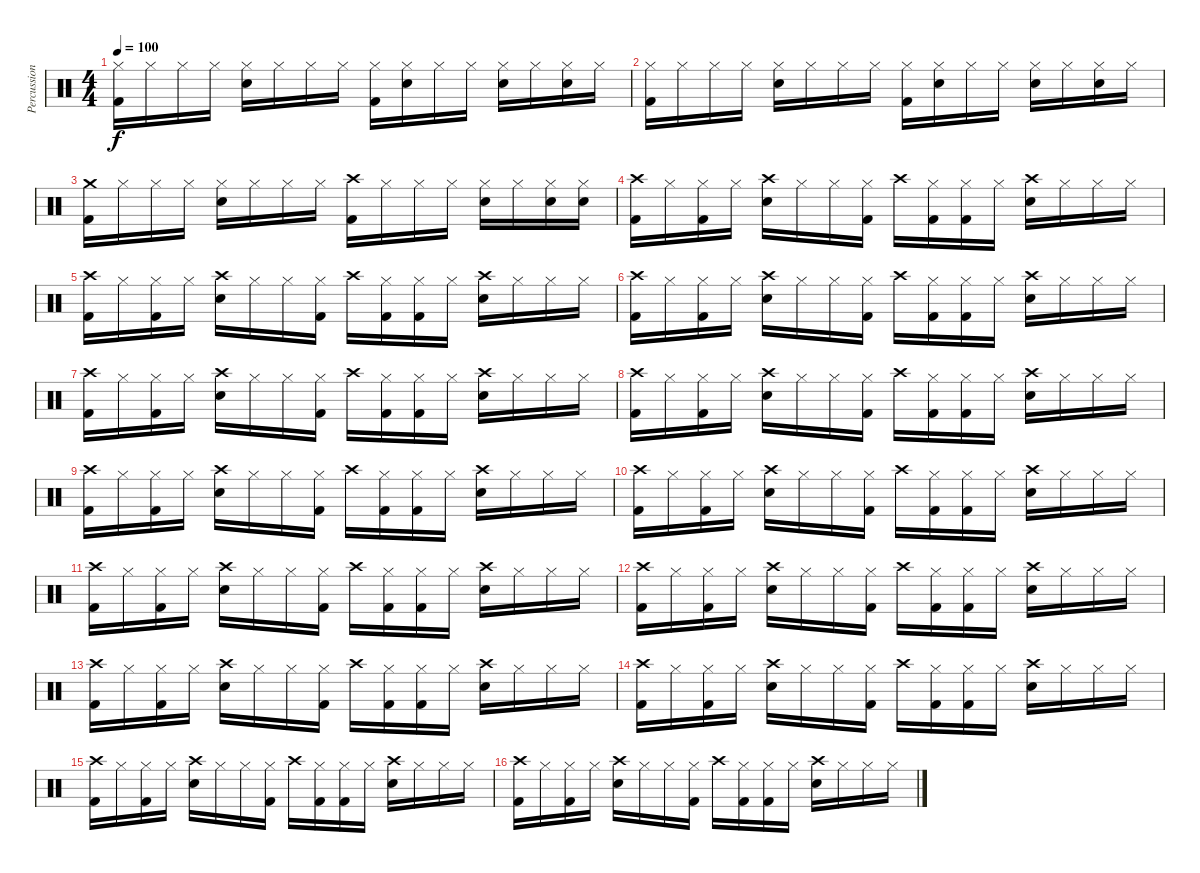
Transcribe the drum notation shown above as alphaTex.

\track ("Percussion" "Percussion") {instrument percussion}
\staff {score}
\articulation defaults
\ts (4 4)
\tempo 100
\clef neutral
\ks c
("Hi-Hat (closed)" "Kick (hit) 2").16{dy f} "Hi-Hat (closed)".16 "Hi-Hat (closed)".16 "Hi-Hat (closed)".16 ("Hi-Hat (closed)" "Snare (hit) 2").16 "Hi-Hat (closed)".16 "Hi-Hat (closed)".16 "Hi-Hat (closed)".16 ("Hi-Hat (closed)" "Kick (hit) 2").16 ("Hi-Hat (closed)" "Snare (hit) 2").16 "Hi-Hat (closed)".16 "Hi-Hat (closed)".16 ("Hi-Hat (closed)" "Snare (hit) 2").16 "Hi-Hat (closed)".16 ("Hi-Hat (closed)" "Snare (hit) 2").16 "Hi-Hat (closed)".16 |
("Hi-Hat (closed)" "Kick (hit) 2").16 "Hi-Hat (closed)".16 "Hi-Hat (closed)".16 "Hi-Hat (closed)".16 ("Hi-Hat (closed)" "Snare (hit) 2").16 "Hi-Hat (closed)".16 "Hi-Hat (closed)".16 "Hi-Hat (closed)".16 ("Hi-Hat (closed)" "Kick (hit) 2").16 ("Hi-Hat (closed)" "Snare (hit) 2").16 "Hi-Hat (closed)".16 "Hi-Hat (closed)".16 ("Hi-Hat (closed)" "Snare (hit) 2").16 "Hi-Hat (closed)".16 ("Hi-Hat (closed)" "Snare (hit) 2").16 "Hi-Hat (closed)".16 |
("Crash medium (hit)" "Kick (hit) 2").16 "Hi-Hat (closed)".16 "Hi-Hat (closed)".16 "Hi-Hat (closed)".16 ("Hi-Hat (closed)" "Snare (hit) 2").16 "Hi-Hat (closed)".16 "Hi-Hat (closed)".16 "Hi-Hat (closed)".16 ("Crash high (hit)" "Kick (hit) 2").16 "Hi-Hat (closed)".16 "Hi-Hat (closed)".16 "Hi-Hat (closed)".16 ("Hi-Hat (closed)" "Snare (hit) 2").16 "Hi-Hat (closed)".16 ("Hi-Hat (closed)" "Snare (hit) 2").16 ("Hi-Hat (closed)" "Snare (hit) 2").16 |
("Crash high (hit)" "Kick (hit) 2").16 "Hi-Hat (closed)".16 ("Hi-Hat (closed)" "Kick (hit) 2").16 "Hi-Hat (closed)".16 ("Crash high (hit)" "Snare (hit) 2").16 "Hi-Hat (closed)".16 "Hi-Hat (closed)".16 ("Hi-Hat (closed)" "Kick (hit) 2").16 "Crash high (hit)".16 ("Hi-Hat (closed)" "Kick (hit) 2").16 ("Hi-Hat (closed)" "Kick (hit) 2").16 "Hi-Hat (closed)".16 ("Crash high (hit)" "Snare (hit) 2").16 "Hi-Hat (closed)".16 "Hi-Hat (closed)".16 "Hi-Hat (closed)".16 |
("Crash high (hit)" "Kick (hit) 2").16 "Hi-Hat (closed)".16 ("Hi-Hat (closed)" "Kick (hit) 2").16 "Hi-Hat (closed)".16 ("Crash high (hit)" "Snare (hit) 2").16 "Hi-Hat (closed)".16 "Hi-Hat (closed)".16 ("Hi-Hat (closed)" "Kick (hit) 2").16 "Crash high (hit)".16 ("Hi-Hat (closed)" "Kick (hit) 2").16 ("Hi-Hat (closed)" "Kick (hit) 2").16 "Hi-Hat (closed)".16 ("Crash high (hit)" "Snare (hit) 2").16 "Hi-Hat (closed)".16 "Hi-Hat (closed)".16 "Hi-Hat (closed)".16 |
("Crash high (hit)" "Kick (hit) 2").16 "Hi-Hat (closed)".16 ("Hi-Hat (closed)" "Kick (hit) 2").16 "Hi-Hat (closed)".16 ("Crash high (hit)" "Snare (hit) 2").16 "Hi-Hat (closed)".16 "Hi-Hat (closed)".16 ("Hi-Hat (closed)" "Kick (hit) 2").16 "Crash high (hit)".16 ("Hi-Hat (closed)" "Kick (hit) 2").16 ("Hi-Hat (closed)" "Kick (hit) 2").16 "Hi-Hat (closed)".16 ("Crash high (hit)" "Snare (hit) 2").16 "Hi-Hat (closed)".16 "Hi-Hat (closed)".16 "Hi-Hat (closed)".16 |
("Crash high (hit)" "Kick (hit) 2").16 "Hi-Hat (closed)".16 ("Hi-Hat (closed)" "Kick (hit) 2").16 "Hi-Hat (closed)".16 ("Crash high (hit)" "Snare (hit) 2").16 "Hi-Hat (closed)".16 "Hi-Hat (closed)".16 ("Hi-Hat (closed)" "Kick (hit) 2").16 "Crash high (hit)".16 ("Hi-Hat (closed)" "Kick (hit) 2").16 ("Hi-Hat (closed)" "Kick (hit) 2").16 "Hi-Hat (closed)".16 ("Crash high (hit)" "Snare (hit) 2").16 "Hi-Hat (closed)".16 "Hi-Hat (closed)".16 "Hi-Hat (closed)".16 |
("Crash high (hit)" "Kick (hit) 2").16 "Hi-Hat (closed)".16 ("Hi-Hat (closed)" "Kick (hit) 2").16 "Hi-Hat (closed)".16 ("Crash high (hit)" "Snare (hit) 2").16 "Hi-Hat (closed)".16 "Hi-Hat (closed)".16 ("Hi-Hat (closed)" "Kick (hit) 2").16 "Crash high (hit)".16 ("Hi-Hat (closed)" "Kick (hit) 2").16 ("Hi-Hat (closed)" "Kick (hit) 2").16 "Hi-Hat (closed)".16 ("Crash high (hit)" "Snare (hit) 2").16 "Hi-Hat (closed)".16 "Hi-Hat (closed)".16 "Hi-Hat (closed)".16 |
("Crash high (hit)" "Kick (hit) 2").16 "Hi-Hat (closed)".16 ("Hi-Hat (closed)" "Kick (hit) 2").16 "Hi-Hat (closed)".16 ("Crash high (hit)" "Snare (hit) 2").16 "Hi-Hat (closed)".16 "Hi-Hat (closed)".16 ("Hi-Hat (closed)" "Kick (hit) 2").16 "Crash high (hit)".16 ("Hi-Hat (closed)" "Kick (hit) 2").16 ("Hi-Hat (closed)" "Kick (hit) 2").16 "Hi-Hat (closed)".16 ("Crash high (hit)" "Snare (hit) 2").16 "Hi-Hat (closed)".16 "Hi-Hat (closed)".16 "Hi-Hat (closed)".16 |
("Crash high (hit)" "Kick (hit) 2").16 "Hi-Hat (closed)".16 ("Hi-Hat (closed)" "Kick (hit) 2").16 "Hi-Hat (closed)".16 ("Crash high (hit)" "Snare (hit) 2").16 "Hi-Hat (closed)".16 "Hi-Hat (closed)".16 ("Hi-Hat (closed)" "Kick (hit) 2").16 "Crash high (hit)".16 ("Hi-Hat (closed)" "Kick (hit) 2").16 ("Hi-Hat (closed)" "Kick (hit) 2").16 "Hi-Hat (closed)".16 ("Crash high (hit)" "Snare (hit) 2").16 "Hi-Hat (closed)".16 "Hi-Hat (closed)".16 "Hi-Hat (closed)".16 |
("Crash high (hit)" "Kick (hit) 2").16 "Hi-Hat (closed)".16 ("Hi-Hat (closed)" "Kick (hit) 2").16 "Hi-Hat (closed)".16 ("Crash high (hit)" "Snare (hit) 2").16 "Hi-Hat (closed)".16 "Hi-Hat (closed)".16 ("Hi-Hat (closed)" "Kick (hit) 2").16 "Crash high (hit)".16 ("Hi-Hat (closed)" "Kick (hit) 2").16 ("Hi-Hat (closed)" "Kick (hit) 2").16 "Hi-Hat (closed)".16 ("Crash high (hit)" "Snare (hit) 2").16 "Hi-Hat (closed)".16 "Hi-Hat (closed)".16 "Hi-Hat (closed)".16 |
("Crash high (hit)" "Kick (hit) 2").16 "Hi-Hat (closed)".16 ("Hi-Hat (closed)" "Kick (hit) 2").16 "Hi-Hat (closed)".16 ("Crash high (hit)" "Snare (hit) 2").16 "Hi-Hat (closed)".16 "Hi-Hat (closed)".16 ("Hi-Hat (closed)" "Kick (hit) 2").16 "Crash high (hit)".16 ("Hi-Hat (closed)" "Kick (hit) 2").16 ("Hi-Hat (closed)" "Kick (hit) 2").16 "Hi-Hat (closed)".16 ("Crash high (hit)" "Snare (hit) 2").16 "Hi-Hat (closed)".16 "Hi-Hat (closed)".16 "Hi-Hat (closed)".16 |
("Crash high (hit)" "Kick (hit) 2").16 "Hi-Hat (closed)".16 ("Hi-Hat (closed)" "Kick (hit) 2").16 "Hi-Hat (closed)".16 ("Crash high (hit)" "Snare (hit) 2").16 "Hi-Hat (closed)".16 "Hi-Hat (closed)".16 ("Hi-Hat (closed)" "Kick (hit) 2").16 "Crash high (hit)".16 ("Hi-Hat (closed)" "Kick (hit) 2").16 ("Hi-Hat (closed)" "Kick (hit) 2").16 "Hi-Hat (closed)".16 ("Crash high (hit)" "Snare (hit) 2").16 "Hi-Hat (closed)".16 "Hi-Hat (closed)".16 "Hi-Hat (closed)".16 |
("Crash high (hit)" "Kick (hit) 2").16 "Hi-Hat (closed)".16 ("Hi-Hat (closed)" "Kick (hit) 2").16 "Hi-Hat (closed)".16 ("Crash high (hit)" "Snare (hit) 2").16 "Hi-Hat (closed)".16 "Hi-Hat (closed)".16 ("Hi-Hat (closed)" "Kick (hit) 2").16 "Crash high (hit)".16 ("Hi-Hat (closed)" "Kick (hit) 2").16 ("Hi-Hat (closed)" "Kick (hit) 2").16 "Hi-Hat (closed)".16 ("Crash high (hit)" "Snare (hit) 2").16 "Hi-Hat (closed)".16 "Hi-Hat (closed)".16 "Hi-Hat (closed)".16 |
("Crash high (hit)" "Kick (hit) 2").16 "Hi-Hat (closed)".16 ("Hi-Hat (closed)" "Kick (hit) 2").16 "Hi-Hat (closed)".16 ("Crash high (hit)" "Snare (hit) 2").16 "Hi-Hat (closed)".16 "Hi-Hat (closed)".16 ("Hi-Hat (closed)" "Kick (hit) 2").16 "Crash high (hit)".16 ("Hi-Hat (closed)" "Kick (hit) 2").16 ("Hi-Hat (closed)" "Kick (hit) 2").16 "Hi-Hat (closed)".16 ("Crash high (hit)" "Snare (hit) 2").16 "Hi-Hat (closed)".16 "Hi-Hat (closed)".16 "Hi-Hat (closed)".16 |
("Crash high (hit)" "Kick (hit) 2").16 "Hi-Hat (closed)".16 ("Hi-Hat (closed)" "Kick (hit) 2").16 "Hi-Hat (closed)".16 ("Crash high (hit)" "Snare (hit) 2").16 "Hi-Hat (closed)".16 "Hi-Hat (closed)".16 ("Hi-Hat (closed)" "Kick (hit) 2").16 "Crash high (hit)".16 ("Hi-Hat (closed)" "Kick (hit) 2").16 ("Hi-Hat (closed)" "Kick (hit) 2").16 "Hi-Hat (closed)".16 ("Crash high (hit)" "Snare (hit) 2").16 "Hi-Hat (closed)".16 "Hi-Hat (closed)".16 "Hi-Hat (closed)".16
